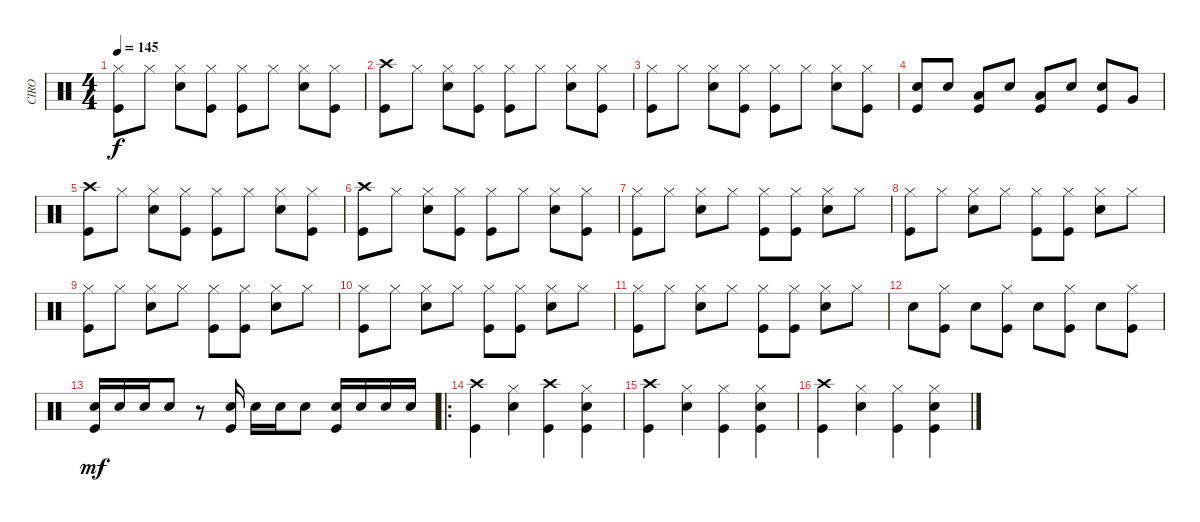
\track ("CIRO" "CIRO") {instrument percussion}
\staff {score}
\articulation defaults
\ts (4 4)
\tempo 145
\clef neutral
\ks c
("Hi-Hat (closed)" "Kick (hit)").8{dy f} "Hi-Hat (closed)".8 ("Hi-Hat (closed)" "Snare (hit) 2").8 ("Hi-Hat (closed)" "Kick (hit)").8 ("Hi-Hat (closed)" "Kick (hit)").8 "Hi-Hat (closed)".8 ("Hi-Hat (closed)" "Snare (hit) 2").8 ("Hi-Hat (closed)" "Kick (hit)").8 |
("Crash high (hit)" "Kick (hit)").8 "Hi-Hat (closed)".8 ("Hi-Hat (closed)" "Snare (hit) 2").8 ("Hi-Hat (closed)" "Kick (hit)").8 ("Hi-Hat (closed)" "Kick (hit)").8 "Hi-Hat (closed)".8 ("Hi-Hat (closed)" "Snare (hit) 2").8 ("Hi-Hat (closed)" "Kick (hit)").8 |
("Hi-Hat (closed)" "Kick (hit)").8 "Hi-Hat (closed)".8 ("Hi-Hat (closed)" "Snare (hit) 2").8 ("Hi-Hat (closed)" "Kick (hit)").8 ("Hi-Hat (closed)" "Kick (hit)").8 "Hi-Hat (closed)".8 ("Hi-Hat (closed)" "Snare (hit) 2").8 ("Hi-Hat (closed)" "Kick (hit)").8 |
("Snare (hit) 2" "Kick (hit)").8 "Snare (hit) 2".8 ("Low Tom (hit)" "Kick (hit)").8 "Snare (hit) 2".8 ("Low Tom (hit)" "Kick (hit)").8 "Snare (hit) 2".8 ("Snare (hit) 2" "Kick (hit)").8 "Very Low Tom (hit)".8 |
("Crash high (hit)" "Kick (hit)").8 "Hi-Hat (closed)".8 ("Hi-Hat (closed)" "Snare (hit) 2").8 ("Hi-Hat (closed)" "Kick (hit)").8 ("Hi-Hat (closed)" "Kick (hit)").8 "Hi-Hat (closed)".8 ("Hi-Hat (closed)" "Snare (hit) 2").8 ("Hi-Hat (closed)" "Kick (hit)").8 |
("Crash high (hit)" "Kick (hit)").8 "Hi-Hat (closed)".8 ("Hi-Hat (closed)" "Snare (hit) 2").8 ("Hi-Hat (closed)" "Kick (hit)").8 ("Hi-Hat (closed)" "Kick (hit)").8 "Hi-Hat (closed)".8 ("Hi-Hat (closed)" "Snare (hit) 2").8 ("Hi-Hat (closed)" "Kick (hit)").8 |
("Hi-Hat (closed)" "Kick (hit)").8 "Hi-Hat (closed)".8 ("Hi-Hat (closed)" "Snare (hit) 2").8 "Hi-Hat (closed)".8 ("Hi-Hat (closed)" "Kick (hit)").8 ("Hi-Hat (closed)" "Kick (hit)").8 ("Hi-Hat (closed)" "Snare (hit) 2").8 "Hi-Hat (closed)".8 |
("Hi-Hat (closed)" "Kick (hit)").8 "Hi-Hat (closed)".8 ("Hi-Hat (closed)" "Snare (hit) 2").8 "Hi-Hat (closed)".8 ("Hi-Hat (closed)" "Kick (hit)").8 ("Hi-Hat (closed)" "Kick (hit)").8 ("Hi-Hat (closed)" "Snare (hit) 2").8 "Hi-Hat (closed)".8 |
("Hi-Hat (closed)" "Kick (hit)").8 "Hi-Hat (closed)".8 ("Hi-Hat (closed)" "Snare (hit) 2").8 "Hi-Hat (closed)".8 ("Hi-Hat (closed)" "Kick (hit)").8 ("Hi-Hat (closed)" "Kick (hit)").8 ("Hi-Hat (closed)" "Snare (hit) 2").8 "Hi-Hat (closed)".8 |
("Hi-Hat (closed)" "Kick (hit)").8 "Hi-Hat (closed)".8 ("Hi-Hat (closed)" "Snare (hit) 2").8 "Hi-Hat (closed)".8 ("Hi-Hat (closed)" "Kick (hit)").8 ("Hi-Hat (closed)" "Kick (hit)").8 ("Hi-Hat (closed)" "Snare (hit) 2").8 "Hi-Hat (closed)".8 |
("Hi-Hat (closed)" "Kick (hit)").8 "Hi-Hat (closed)".8 ("Hi-Hat (closed)" "Snare (hit) 2").8 "Hi-Hat (closed)".8 ("Hi-Hat (closed)" "Kick (hit)").8 ("Hi-Hat (closed)" "Kick (hit)").8 ("Hi-Hat (closed)" "Snare (hit) 2").8 "Hi-Hat (closed)".8 |
"Snare (hit) 2".8 ("Hi-Hat (closed)" "Kick (hit)").8 "Snare (hit) 2".8 ("Hi-Hat (closed)" "Kick (hit)").8 "Snare (hit) 2".8 ("Hi-Hat (closed)" "Kick (hit)").8 "Snare (hit) 2".8 ("Hi-Hat (closed)" "Kick (hit)").8 |
("Snare (hit) 2" "Kick (hit)").16{dy mf} "Snare (hit) 2".16 "Snare (hit) 2".16 "Snare (hit) 2".8 r.8 ("Snare (hit) 2" "Kick (hit)").16 "Snare (hit) 2".16 "Snare (hit) 2".16 "Snare (hit) 2".8 ("Snare (hit) 2" "Kick (hit)").16 "Snare (hit) 2".16 "Snare (hit) 2".16 "Snare (hit) 2".16 |
\ro
("Crash high (hit)" "Kick (hit)").4 ("Hi-Hat (closed)" "Snare (hit) 2").4 ("Crash high (hit)" "Kick (hit)").4 ("Hi-Hat (closed)" "Snare (hit) 2" "Kick (hit)").4 |
("Crash high (hit)" "Kick (hit)").4 ("Hi-Hat (closed)" "Snare (hit) 2").4 ("Hi-Hat (closed)" "Kick (hit)").4 ("Hi-Hat (closed)" "Snare (hit) 2" "Kick (hit)").4 |
("Crash high (hit)" "Kick (hit)").4 ("Hi-Hat (closed)" "Snare (hit) 2").4 ("Hi-Hat (closed)" "Kick (hit)").4 ("Hi-Hat (closed)" "Snare (hit) 2" "Kick (hit)").4
